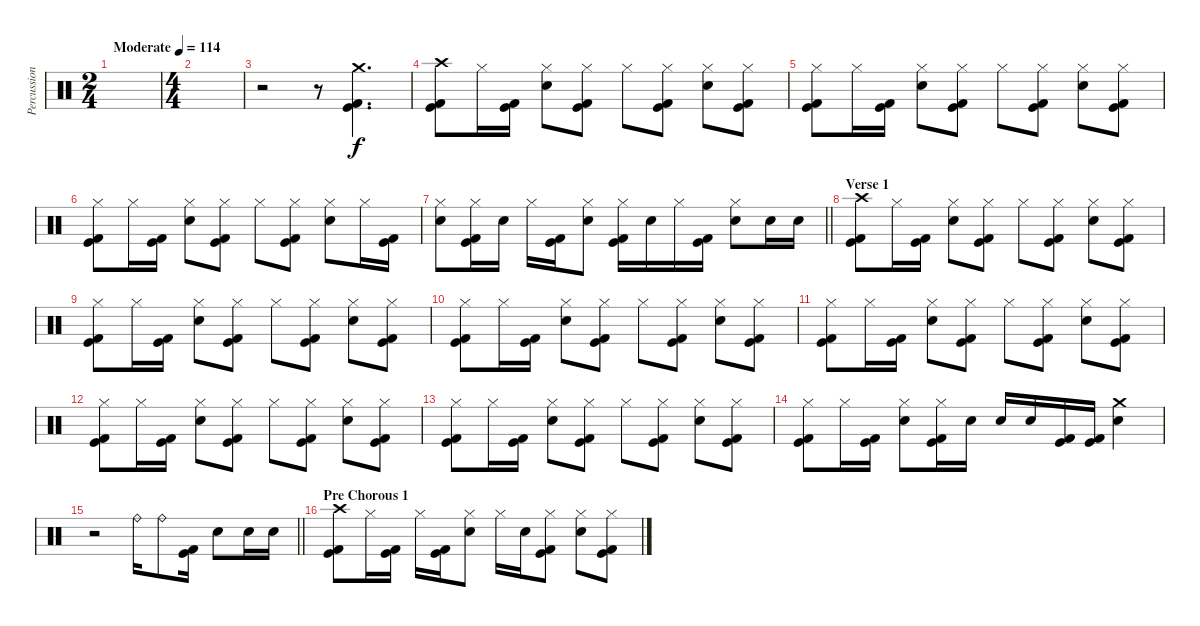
\track ("Percussion" "Percussion") {instrument percussion}
\staff {score}
\articulation defaults
\ts (2 4)
\tempo (114 "Moderate")
\clef neutral
\ks c
|
\ts (4 4)
|
r.2 r.8 ("Crash medium (hit)" "Kick (hit)" "Kick (hit) 2").4{d} |
("Crash high (hit)" "Kick (hit)" "Kick (hit) 2").8 "Hi-Hat (closed)".16 ("Kick (hit)" "Kick (hit) 2").16 ("Hi-Hat (closed)" "Electric Snare (hit)").8 ("Hi-Hat (closed)" "Kick (hit)" "Kick (hit) 2").8 "Hi-Hat (closed)".8 ("Hi-Hat (closed)" "Kick (hit)" "Kick (hit) 2").8 ("Hi-Hat (closed)" "Electric Snare (hit)").8 ("Hi-Hat (closed)" "Kick (hit)" "Kick (hit) 2").8 |
("Hi-Hat (closed)" "Kick (hit)" "Kick (hit) 2").8 "Hi-Hat (closed)".16 ("Kick (hit)" "Kick (hit) 2").16 ("Hi-Hat (closed)" "Electric Snare (hit)").8 ("Hi-Hat (closed)" "Kick (hit)" "Kick (hit) 2").8 "Hi-Hat (closed)".8 ("Hi-Hat (closed)" "Kick (hit)" "Kick (hit) 2").8 ("Hi-Hat (closed)" "Electric Snare (hit)").8 ("Hi-Hat (closed)" "Kick (hit)" "Kick (hit) 2").8 |
("Hi-Hat (closed)" "Kick (hit)" "Kick (hit) 2").8 "Hi-Hat (closed)".16 ("Kick (hit)" "Kick (hit) 2").16 ("Hi-Hat (closed)" "Electric Snare (hit)").8 ("Hi-Hat (closed)" "Kick (hit)" "Kick (hit) 2").8 "Hi-Hat (closed)".8 ("Hi-Hat (closed)" "Kick (hit)" "Kick (hit) 2").8 ("Hi-Hat (closed)" "Electric Snare (hit)").8 "Hi-Hat (closed)".16 ("Kick (hit)" "Kick (hit) 2").16 |
\barLineRight lightlight
("Hi-Hat (closed)" "Electric Snare (hit)").8 ("Hi-Hat (closed)" "Kick (hit)" "Kick (hit) 2").16 "Electric Snare (hit)".16 "Hi-Hat (closed)".16 ("Kick (hit)" "Kick (hit) 2").16 ("Hi-Hat (closed)" "Electric Snare (hit)").8 ("Hi-Hat (closed)" "Kick (hit)" "Kick (hit) 2").16 "Electric Snare (hit)".16 "Hi-Hat (closed)".16 ("Kick (hit)" "Kick (hit) 2").16 ("Hi-Hat (closed)" "Electric Snare (hit)").8 "Electric Snare (hit)".16 "Electric Snare (hit)".16 |
\section ("" "Verse 1")
("Crash high (hit)" "Kick (hit)" "Kick (hit) 2").8 "Hi-Hat (closed)".16 ("Kick (hit)" "Kick (hit) 2").16 ("Hi-Hat (closed)" "Electric Snare (hit)").8 ("Hi-Hat (closed)" "Kick (hit)" "Kick (hit) 2").8 "Hi-Hat (closed)".8 ("Hi-Hat (closed)" "Kick (hit)" "Kick (hit) 2").8 ("Hi-Hat (closed)" "Electric Snare (hit)").8 ("Hi-Hat (closed)" "Kick (hit)" "Kick (hit) 2").8 |
("Hi-Hat (closed)" "Kick (hit)" "Kick (hit) 2").8 "Hi-Hat (closed)".16 ("Kick (hit)" "Kick (hit) 2").16 ("Hi-Hat (closed)" "Electric Snare (hit)").8 ("Hi-Hat (closed)" "Kick (hit)" "Kick (hit) 2").8 "Hi-Hat (closed)".8 ("Hi-Hat (closed)" "Kick (hit)" "Kick (hit) 2").8 ("Hi-Hat (closed)" "Electric Snare (hit)").8 ("Hi-Hat (closed)" "Kick (hit)" "Kick (hit) 2").8 |
("Hi-Hat (closed)" "Kick (hit)" "Kick (hit) 2").8 "Hi-Hat (closed)".16 ("Kick (hit)" "Kick (hit) 2").16 ("Hi-Hat (closed)" "Electric Snare (hit)").8 ("Hi-Hat (closed)" "Kick (hit)" "Kick (hit) 2").8 "Hi-Hat (closed)".8 ("Hi-Hat (closed)" "Kick (hit)" "Kick (hit) 2").8 ("Hi-Hat (closed)" "Electric Snare (hit)").8 ("Hi-Hat (closed)" "Kick (hit)" "Kick (hit) 2").8 |
("Hi-Hat (closed)" "Kick (hit)" "Kick (hit) 2").8 "Hi-Hat (closed)".16 ("Kick (hit)" "Kick (hit) 2").16 ("Hi-Hat (closed)" "Electric Snare (hit)").8 ("Hi-Hat (closed)" "Kick (hit)" "Kick (hit) 2").8 "Hi-Hat (closed)".8 ("Hi-Hat (closed)" "Kick (hit)" "Kick (hit) 2").8 ("Hi-Hat (closed)" "Electric Snare (hit)").8 ("Hi-Hat (closed)" "Kick (hit)" "Kick (hit) 2").8 |
("Hi-Hat (closed)" "Kick (hit)" "Kick (hit) 2").8 "Hi-Hat (closed)".16 ("Kick (hit)" "Kick (hit) 2").16 ("Hi-Hat (closed)" "Electric Snare (hit)").8 ("Hi-Hat (closed)" "Kick (hit)" "Kick (hit) 2").8 "Hi-Hat (closed)".8 ("Hi-Hat (closed)" "Kick (hit)" "Kick (hit) 2").8 ("Hi-Hat (closed)" "Electric Snare (hit)").8 ("Hi-Hat (closed)" "Kick (hit)" "Kick (hit) 2").8 |
("Hi-Hat (closed)" "Kick (hit)" "Kick (hit) 2").8 "Hi-Hat (closed)".16 ("Kick (hit)" "Kick (hit) 2").16 ("Hi-Hat (closed)" "Electric Snare (hit)").8 ("Hi-Hat (closed)" "Kick (hit)" "Kick (hit) 2").8 "Hi-Hat (closed)".8 ("Hi-Hat (closed)" "Kick (hit)" "Kick (hit) 2").8 ("Hi-Hat (closed)" "Electric Snare (hit)").8 ("Hi-Hat (closed)" "Kick (hit)" "Kick (hit) 2").8 |
("Hi-Hat (closed)" "Kick (hit)" "Kick (hit) 2").8 "Hi-Hat (closed)".16 ("Kick (hit)" "Kick (hit) 2").16 ("Hi-Hat (closed)" "Electric Snare (hit)").8 ("Hi-Hat (closed)" "Kick (hit)" "Kick (hit) 2").16 "Electric Snare (hit)".16 "Electric Snare (hit)".16 "Electric Snare (hit)".16 ("Kick (hit)" "Kick (hit) 2").16 ("Kick (hit)" "Kick (hit) 2").16 ("Crash medium (hit)" "Electric Snare (hit)").4 |
\barLineRight lightlight
r.2 "Ride (bell)".16 "Ride (bell)".8 ("Kick (hit)" "Kick (hit) 2").16 "Electric Snare (hit)".8 "Electric Snare (hit)".16 "Electric Snare (hit)".16 |
\section ("" "Pre Chorous 1")
("Crash high (hit)" "Kick (hit)" "Kick (hit) 2").8 "Hi-Hat (closed)".16 ("Kick (hit)" "Kick (hit) 2").16 "Hi-Hat (closed)".16 ("Kick (hit)" "Kick (hit) 2").16 ("Hi-Hat (closed)" "Electric Snare (hit)").8 "Hi-Hat (closed)".16 "Electric Snare (hit)".16 ("Hi-Hat (closed)" "Kick (hit)" "Kick (hit) 2").8 ("Hi-Hat (closed)" "Electric Snare (hit)").8 ("Hi-Hat (closed)" "Kick (hit)" "Kick (hit) 2").8
